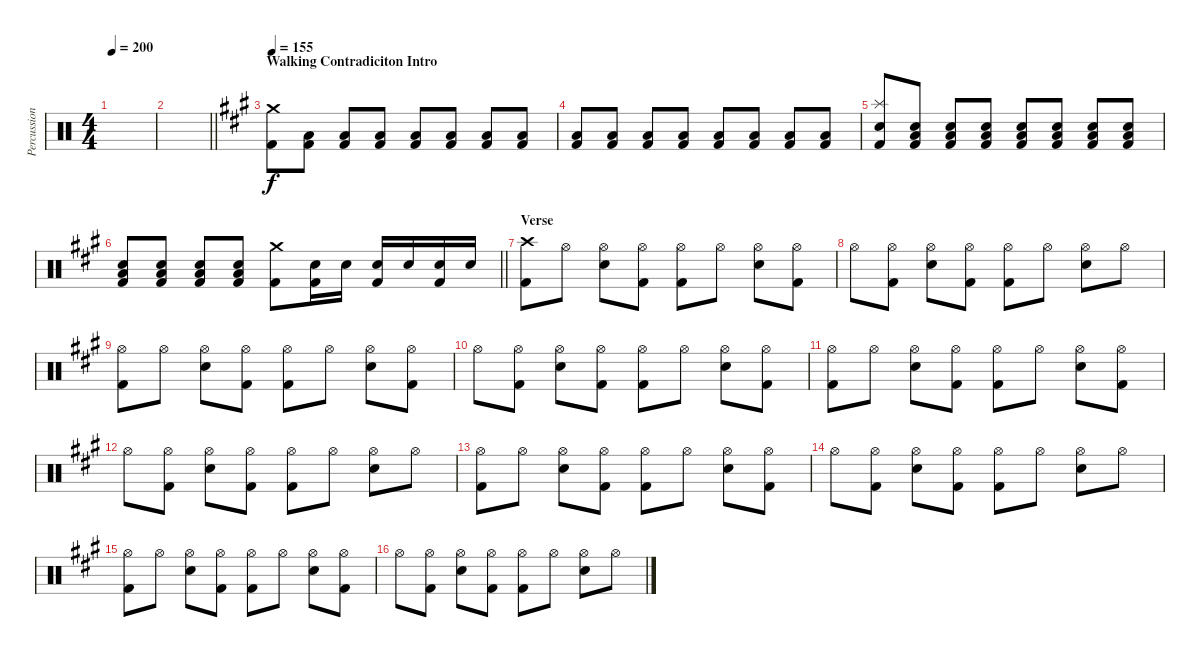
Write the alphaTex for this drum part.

\track ("Percussion" "Percussion") {instrument percussion}
\staff {score}
\articulation defaults
\ts (4 4)
\tempo 200
\clef neutral
\ks c
|
\barLineRight lightlight
|
\section ("" "Walking Contradiciton Intro")
\tempo 155
\ks a
("Crash medium (hit)" "Kick (hit) 2").8 ("Low Floor Tom (hit)" "Kick (hit) 2").8 ("Low Floor Tom (hit)" "Kick (hit) 2").8 ("Low Floor Tom (hit)" "Kick (hit) 2").8 ("Low Floor Tom (hit)" "Kick (hit) 2").8 ("Low Floor Tom (hit)" "Kick (hit) 2").8 ("Low Floor Tom (hit)" "Kick (hit) 2").8 ("Low Floor Tom (hit)" "Kick (hit) 2").8 |
("Low Floor Tom (hit)" "Kick (hit) 2").8 ("Low Floor Tom (hit)" "Kick (hit) 2").8 ("Low Floor Tom (hit)" "Kick (hit) 2").8 ("Low Floor Tom (hit)" "Kick (hit) 2").8 ("Low Floor Tom (hit)" "Kick (hit) 2").8 ("Low Floor Tom (hit)" "Kick (hit) 2").8 ("Low Floor Tom (hit)" "Kick (hit) 2").8 ("Low Floor Tom (hit)" "Kick (hit) 2").8 |
("Splash (hit)" "Electric Snare (hit)" "Kick (hit) 2").8 ("Low Floor Tom (hit)" "Electric Snare (hit)" "Kick (hit) 2").8 ("Low Floor Tom (hit)" "Electric Snare (hit)" "Kick (hit) 2").8 ("Low Floor Tom (hit)" "Electric Snare (hit)" "Kick (hit) 2").8 ("Low Floor Tom (hit)" "Electric Snare (hit)" "Kick (hit) 2").8 ("Low Floor Tom (hit)" "Electric Snare (hit)" "Kick (hit) 2").8 ("Low Floor Tom (hit)" "Electric Snare (hit)" "Kick (hit) 2").8 ("Low Floor Tom (hit)" "Electric Snare (hit)" "Kick (hit) 2").8 |
\barLineRight lightlight
("Electric Snare (hit)" "Low Floor Tom (hit)" "Kick (hit) 2").8 ("Electric Snare (hit)" "Low Floor Tom (hit)" "Kick (hit) 2").8 ("Electric Snare (hit)" "Low Floor Tom (hit)" "Kick (hit) 2").8 ("Electric Snare (hit)" "Low Floor Tom (hit)" "Kick (hit) 2").8 ("Crash medium (hit)" "Kick (hit) 2").8 ("Electric Snare (hit)" "Kick (hit) 2").16 "Electric Snare (hit)".16 ("Electric Snare (hit)" "Kick (hit) 2").16 "Electric Snare (hit)".16 ("Electric Snare (hit)" "Kick (hit) 2").16 "Electric Snare (hit)".16 |
\section ("" "Verse")
("Crash high (hit)" "Kick (hit) 2").8 "Hi-Hat (open)".8 ("Hi-Hat (open)" "Electric Snare (hit)").8 ("Hi-Hat (open)" "Kick (hit) 2").8 ("Hi-Hat (open)" "Kick (hit) 2").8 "Hi-Hat (open)".8 ("Hi-Hat (open)" "Electric Snare (hit)").8 ("Hi-Hat (open)" "Kick (hit) 2").8 |
"Hi-Hat (open)".8 ("Hi-Hat (open)" "Kick (hit) 2").8 ("Hi-Hat (open)" "Electric Snare (hit)").8 ("Hi-Hat (open)" "Kick (hit) 2").8 ("Hi-Hat (open)" "Kick (hit) 2").8 "Hi-Hat (open)".8 ("Hi-Hat (open)" "Electric Snare (hit)").8 "Hi-Hat (open)".8 |
("Hi-Hat (open)" "Kick (hit) 2").8 "Hi-Hat (open)".8 ("Hi-Hat (open)" "Electric Snare (hit)").8 ("Hi-Hat (open)" "Kick (hit) 2").8 ("Hi-Hat (open)" "Kick (hit) 2").8 "Hi-Hat (open)".8 ("Hi-Hat (open)" "Electric Snare (hit)").8 ("Hi-Hat (open)" "Kick (hit) 2").8 |
"Hi-Hat (open)".8 ("Hi-Hat (open)" "Kick (hit) 2").8 ("Hi-Hat (open)" "Electric Snare (hit)").8 ("Hi-Hat (open)" "Kick (hit) 2").8 ("Hi-Hat (open)" "Kick (hit) 2").8 "Hi-Hat (open)".8 ("Hi-Hat (open)" "Electric Snare (hit)").8 ("Hi-Hat (open)" "Kick (hit) 2").8 |
("Hi-Hat (open)" "Kick (hit) 2").8 "Hi-Hat (open)".8 ("Hi-Hat (open)" "Electric Snare (hit)").8 ("Hi-Hat (open)" "Kick (hit) 2").8 ("Hi-Hat (open)" "Kick (hit) 2").8 "Hi-Hat (open)".8 ("Hi-Hat (open)" "Electric Snare (hit)").8 ("Hi-Hat (open)" "Kick (hit) 2").8 |
"Hi-Hat (open)".8 ("Hi-Hat (open)" "Kick (hit) 2").8 ("Hi-Hat (open)" "Electric Snare (hit)").8 ("Hi-Hat (open)" "Kick (hit) 2").8 ("Hi-Hat (open)" "Kick (hit) 2").8 "Hi-Hat (open)".8 ("Hi-Hat (open)" "Electric Snare (hit)").8 "Hi-Hat (open)".8 |
("Hi-Hat (open)" "Kick (hit) 2").8 "Hi-Hat (open)".8 ("Hi-Hat (open)" "Electric Snare (hit)").8 ("Hi-Hat (open)" "Kick (hit) 2").8 ("Hi-Hat (open)" "Kick (hit) 2").8 "Hi-Hat (open)".8 ("Hi-Hat (open)" "Electric Snare (hit)").8 ("Hi-Hat (open)" "Kick (hit) 2").8 |
"Hi-Hat (open)".8 ("Hi-Hat (open)" "Kick (hit) 2").8 ("Hi-Hat (open)" "Electric Snare (hit)").8 ("Hi-Hat (open)" "Kick (hit) 2").8 ("Hi-Hat (open)" "Kick (hit) 2").8 "Hi-Hat (open)".8 ("Hi-Hat (open)" "Electric Snare (hit)").8 "Hi-Hat (open)".8 |
("Hi-Hat (open)" "Kick (hit) 2").8 "Hi-Hat (open)".8 ("Hi-Hat (open)" "Electric Snare (hit)").8 ("Hi-Hat (open)" "Kick (hit) 2").8 ("Hi-Hat (open)" "Kick (hit) 2").8 "Hi-Hat (open)".8 ("Hi-Hat (open)" "Electric Snare (hit)").8 ("Hi-Hat (open)" "Kick (hit) 2").8 |
"Hi-Hat (open)".8 ("Hi-Hat (open)" "Kick (hit) 2").8 ("Hi-Hat (open)" "Electric Snare (hit)").8 ("Hi-Hat (open)" "Kick (hit) 2").8 ("Hi-Hat (open)" "Kick (hit) 2").8 "Hi-Hat (open)".8 ("Hi-Hat (open)" "Electric Snare (hit)").8 "Hi-Hat (open)".8
